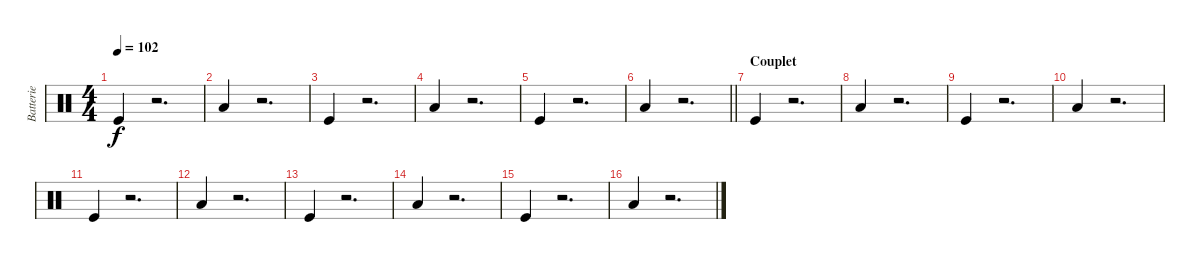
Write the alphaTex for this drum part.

\track ("Batterie" "Batterie") {instrument percussion}
\staff {score}
\articulation defaults
\ts (4 4)
\tempo 102
\clef neutral
\ks c "Kick (hit)".4{dy f}
r.2{d} |
"Low Floor Tom (hit)".4 r.2{d} |
"Kick (hit)".4 r.2{d} |
"Low Floor Tom (hit)".4 r.2{d} |
"Kick (hit)".4 r.2{d} |
\barLineRight lightlight "Low Floor Tom (hit)".4
r.2{d} |
\section ("" "Couplet")
"Kick (hit)".4 r.2{d} |
"Low Floor Tom (hit)".4 r.2{d} |
"Kick (hit)".4 r.2{d} |
"Low Floor Tom (hit)".4 r.2{d} |
"Kick (hit)".4 r.2{d} |
"Low Floor Tom (hit)".4 r.2{d} |
"Kick (hit)".4 r.2{d} |
"Low Floor Tom (hit)".4 r.2{d} |
"Kick (hit)".4 r.2{d} |
"Low Floor Tom (hit)".4 r.2{d}
